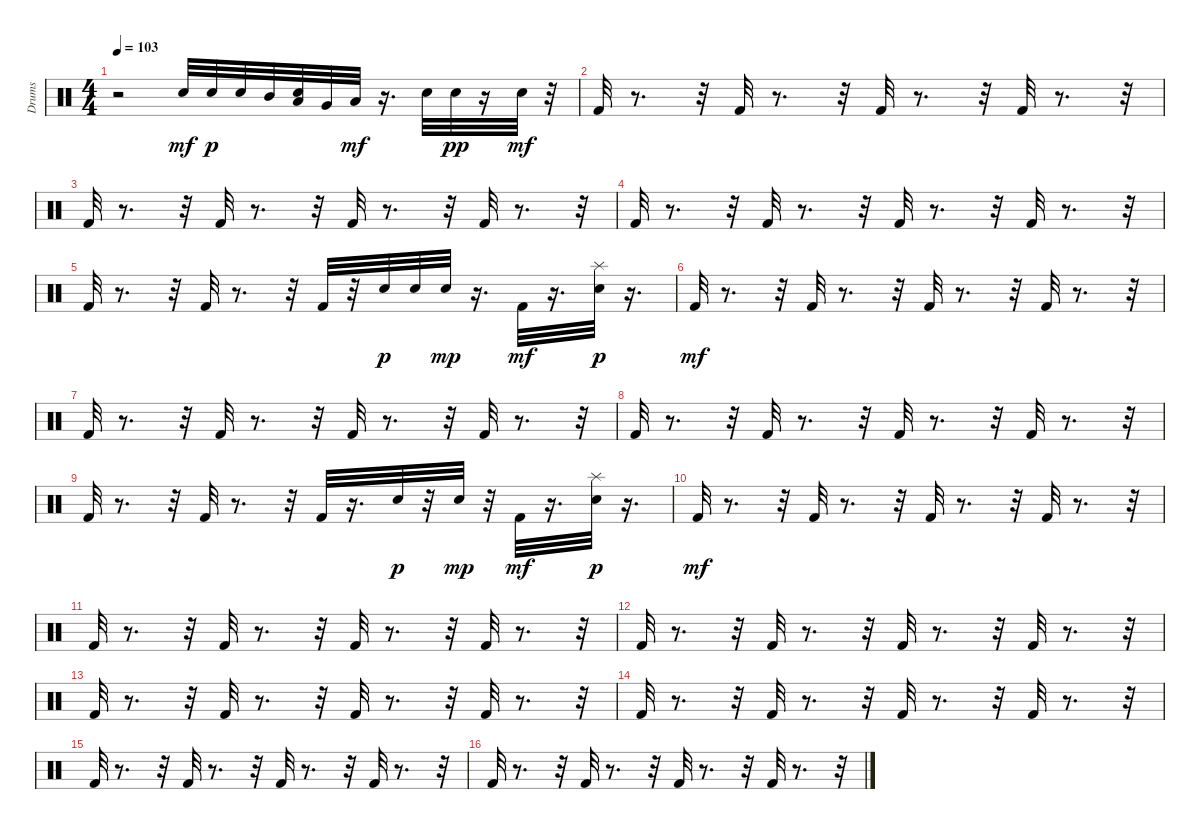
\track ("Drums" "Drums") {instrument percussion}
\staff {score}
\articulation defaults
\ts (4 4)
\tempo 103
\clef neutral
\ks c
r.2{dy mf} "Electric Snare (hit)".32 "Electric Snare (hit)".32{dy p} "Electric Snare (hit)".32 "Mid Tom (hit)".32 ("Electric Snare (hit)" "Low Tom (hit)").32 "Very Low Tom (hit)".32 "Low Floor Tom (hit)".32{dy mf} r.16{d} "Electric Snare (hit)".32 "Electric Snare (hit)".32{dy pp} r.16 "Electric Snare (hit)".32{dy mf} r.32 |
"Kick (hit) 2".32 r.8{d} r.32 "Kick (hit) 2".32 r.8{d} r.32 "Kick (hit) 2".32 r.8{d} r.32 "Kick (hit) 2".32 r.8{d} r.32 |
"Kick (hit) 2".32 r.8{d} r.32 "Kick (hit) 2".32 r.8{d} r.32 "Kick (hit) 2".32 r.8{d} r.32 "Kick (hit) 2".32 r.8{d} r.32 |
"Kick (hit) 2".32 r.8{d} r.32 "Kick (hit) 2".32 r.8{d} r.32 "Kick (hit) 2".32 r.8{d} r.32 "Kick (hit) 2".32 r.8{d} r.32 |
"Kick (hit) 2".32 r.8{d} r.32 "Kick (hit) 2".32 r.8{d} r.32 "Kick (hit) 2".32 r.32 "Electric Snare (hit)".32{dy p} "Electric Snare (hit)".32 "Electric Snare (hit)".32{dy mp} r.16{d} "Kick (hit) 2".32{dy mf} r.16{d} ("Electric Snare (hit)" "Splash (hit)").32{dy p} r.16{d} |
"Kick (hit) 2".32{dy mf} r.8{d} r.32 "Kick (hit) 2".32 r.8{d} r.32 "Kick (hit) 2".32 r.8{d} r.32 "Kick (hit) 2".32 r.8{d} r.32 |
"Kick (hit) 2".32 r.8{d} r.32 "Kick (hit) 2".32 r.8{d} r.32 "Kick (hit) 2".32 r.8{d} r.32 "Kick (hit) 2".32 r.8{d} r.32 |
"Kick (hit) 2".32 r.8{d} r.32 "Kick (hit) 2".32 r.8{d} r.32 "Kick (hit) 2".32 r.8{d} r.32 "Kick (hit) 2".32 r.8{d} r.32 |
"Kick (hit) 2".32 r.8{d} r.32 "Kick (hit) 2".32 r.8{d} r.32 "Kick (hit) 2".32 r.16{d} "Electric Snare (hit)".32{dy p} r.32 "Electric Snare (hit)".32{dy mp} r.32 "Kick (hit) 2".32{dy mf} r.16{d} ("Electric Snare (hit)" "Splash (hit)").32{dy p} r.16{d} |
"Kick (hit) 2".32{dy mf} r.8{d} r.32 "Kick (hit) 2".32 r.8{d} r.32 "Kick (hit) 2".32 r.8{d} r.32 "Kick (hit) 2".32 r.8{d} r.32 |
"Kick (hit) 2".32 r.8{d} r.32 "Kick (hit) 2".32 r.8{d} r.32 "Kick (hit) 2".32 r.8{d} r.32 "Kick (hit) 2".32 r.8{d} r.32 |
"Kick (hit) 2".32 r.8{d} r.32 "Kick (hit) 2".32 r.8{d} r.32 "Kick (hit) 2".32 r.8{d} r.32 "Kick (hit) 2".32 r.8{d} r.32 |
"Kick (hit) 2".32 r.8{d} r.32 "Kick (hit) 2".32 r.8{d} r.32 "Kick (hit) 2".32 r.8{d} r.32 "Kick (hit) 2".32 r.8{d} r.32 |
"Kick (hit) 2".32 r.8{d} r.32 "Kick (hit) 2".32 r.8{d} r.32 "Kick (hit) 2".32 r.8{d} r.32 "Kick (hit) 2".32 r.8{d} r.32 |
"Kick (hit) 2".32 r.8{d} r.32 "Kick (hit) 2".32 r.8{d} r.32 "Kick (hit) 2".32 r.8{d} r.32 "Kick (hit) 2".32 r.8{d} r.32 |
"Kick (hit) 2".32 r.8{d} r.32 "Kick (hit) 2".32 r.8{d} r.32 "Kick (hit) 2".32 r.8{d} r.32 "Kick (hit) 2".32 r.8{d} r.32
